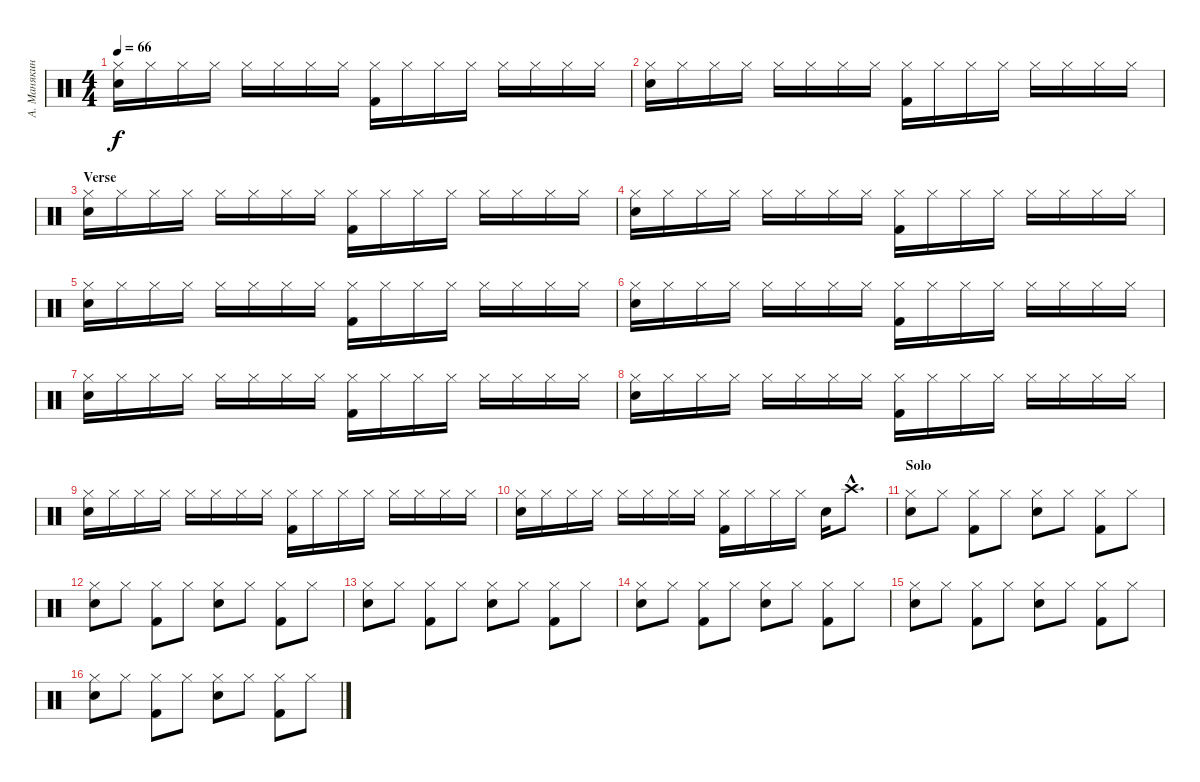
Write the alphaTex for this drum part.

\track ("А. Манякин" "А. Манякин") {instrument percussion}
\staff {score}
\articulation defaults
\ts (4 4)
\tempo 66
\clef neutral
\ks c
("Hi-Hat (closed)" "Snare (hit) 2").16{dy f} "Hi-Hat (closed)".16 "Hi-Hat (closed)".16 "Hi-Hat (closed)".16 "Hi-Hat (closed)".16 "Hi-Hat (closed)".16 "Hi-Hat (closed)".16 "Hi-Hat (closed)".16 ("Hi-Hat (closed)" "Kick (hit) 2").16 "Hi-Hat (closed)".16 "Hi-Hat (closed)".16 "Hi-Hat (closed)".16 "Hi-Hat (closed)".16 "Hi-Hat (closed)".16 "Hi-Hat (closed)".16 "Hi-Hat (closed)".16 |
("Hi-Hat (closed)" "Snare (hit) 2").16 "Hi-Hat (closed)".16 "Hi-Hat (closed)".16 "Hi-Hat (closed)".16 "Hi-Hat (closed)".16 "Hi-Hat (closed)".16 "Hi-Hat (closed)".16 "Hi-Hat (closed)".16 ("Hi-Hat (closed)" "Kick (hit) 2").16 "Hi-Hat (closed)".16 "Hi-Hat (closed)".16 "Hi-Hat (closed)".16 "Hi-Hat (closed)".16 "Hi-Hat (closed)".16 "Hi-Hat (closed)".16 "Hi-Hat (closed)".16 |
\section ("" "Verse")
("Hi-Hat (closed)" "Snare (hit) 2").16 "Hi-Hat (closed)".16 "Hi-Hat (closed)".16 "Hi-Hat (closed)".16 "Hi-Hat (closed)".16 "Hi-Hat (closed)".16 "Hi-Hat (closed)".16 "Hi-Hat (closed)".16 ("Hi-Hat (closed)" "Kick (hit) 2").16 "Hi-Hat (closed)".16 "Hi-Hat (closed)".16 "Hi-Hat (closed)".16 "Hi-Hat (closed)".16 "Hi-Hat (closed)".16 "Hi-Hat (closed)".16 "Hi-Hat (closed)".16 |
("Hi-Hat (closed)" "Snare (hit) 2").16 "Hi-Hat (closed)".16 "Hi-Hat (closed)".16 "Hi-Hat (closed)".16 "Hi-Hat (closed)".16 "Hi-Hat (closed)".16 "Hi-Hat (closed)".16 "Hi-Hat (closed)".16 ("Hi-Hat (closed)" "Kick (hit) 2").16 "Hi-Hat (closed)".16 "Hi-Hat (closed)".16 "Hi-Hat (closed)".16 "Hi-Hat (closed)".16 "Hi-Hat (closed)".16 "Hi-Hat (closed)".16 "Hi-Hat (closed)".16 |
("Hi-Hat (closed)" "Snare (hit) 2").16 "Hi-Hat (closed)".16 "Hi-Hat (closed)".16 "Hi-Hat (closed)".16 "Hi-Hat (closed)".16 "Hi-Hat (closed)".16 "Hi-Hat (closed)".16 "Hi-Hat (closed)".16 ("Hi-Hat (closed)" "Kick (hit) 2").16 "Hi-Hat (closed)".16 "Hi-Hat (closed)".16 "Hi-Hat (closed)".16 "Hi-Hat (closed)".16 "Hi-Hat (closed)".16 "Hi-Hat (closed)".16 "Hi-Hat (closed)".16 |
("Hi-Hat (closed)" "Snare (hit) 2").16 "Hi-Hat (closed)".16 "Hi-Hat (closed)".16 "Hi-Hat (closed)".16 "Hi-Hat (closed)".16 "Hi-Hat (closed)".16 "Hi-Hat (closed)".16 "Hi-Hat (closed)".16 ("Hi-Hat (closed)" "Kick (hit) 2").16 "Hi-Hat (closed)".16 "Hi-Hat (closed)".16 "Hi-Hat (closed)".16 "Hi-Hat (closed)".16 "Hi-Hat (closed)".16 "Hi-Hat (closed)".16 "Hi-Hat (closed)".16 |
("Hi-Hat (closed)" "Snare (hit) 2").16 "Hi-Hat (closed)".16 "Hi-Hat (closed)".16 "Hi-Hat (closed)".16 "Hi-Hat (closed)".16 "Hi-Hat (closed)".16 "Hi-Hat (closed)".16 "Hi-Hat (closed)".16 ("Hi-Hat (closed)" "Kick (hit) 2").16 "Hi-Hat (closed)".16 "Hi-Hat (closed)".16 "Hi-Hat (closed)".16 "Hi-Hat (closed)".16 "Hi-Hat (closed)".16 "Hi-Hat (closed)".16 "Hi-Hat (closed)".16 |
("Hi-Hat (closed)" "Snare (hit) 2").16 "Hi-Hat (closed)".16 "Hi-Hat (closed)".16 "Hi-Hat (closed)".16 "Hi-Hat (closed)".16 "Hi-Hat (closed)".16 "Hi-Hat (closed)".16 "Hi-Hat (closed)".16 ("Hi-Hat (closed)" "Kick (hit) 2").16 "Hi-Hat (closed)".16 "Hi-Hat (closed)".16 "Hi-Hat (closed)".16 "Hi-Hat (closed)".16 "Hi-Hat (closed)".16 "Hi-Hat (closed)".16 "Hi-Hat (closed)".16 |
("Hi-Hat (closed)" "Snare (hit) 2").16 "Hi-Hat (closed)".16 "Hi-Hat (closed)".16 "Hi-Hat (closed)".16 "Hi-Hat (closed)".16 "Hi-Hat (closed)".16 "Hi-Hat (closed)".16 "Hi-Hat (closed)".16 ("Hi-Hat (closed)" "Kick (hit) 2").16 "Hi-Hat (closed)".16 "Hi-Hat (closed)".16 "Hi-Hat (closed)".16 "Hi-Hat (closed)".16 "Hi-Hat (closed)".16 "Hi-Hat (closed)".16 "Hi-Hat (closed)".16 |
("Hi-Hat (closed)" "Snare (hit) 2").16 "Hi-Hat (closed)".16 "Hi-Hat (closed)".16 "Hi-Hat (closed)".16 "Hi-Hat (closed)".16 "Hi-Hat (closed)".16 "Hi-Hat (closed)".16 "Hi-Hat (closed)".16 ("Hi-Hat (closed)" "Kick (hit) 2").16 "Hi-Hat (closed)".16 "Hi-Hat (closed)".16 "Hi-Hat (closed)".16 "Snare (hit) 2".16 "Crash high (hit)"{hac}.8{d} |
\section ("" "Solo")
("Hi-Hat (closed)" "Snare (hit) 2").8 "Hi-Hat (closed)".8 ("Hi-Hat (closed)" "Kick (hit) 2").8 "Hi-Hat (closed)".8 ("Hi-Hat (closed)" "Snare (hit) 2").8 "Hi-Hat (closed)".8 ("Hi-Hat (closed)" "Kick (hit) 2").8 "Hi-Hat (closed)".8 |
("Hi-Hat (closed)" "Snare (hit) 2").8 "Hi-Hat (closed)".8 ("Hi-Hat (closed)" "Kick (hit) 2").8 "Hi-Hat (closed)".8 ("Hi-Hat (closed)" "Snare (hit) 2").8 "Hi-Hat (closed)".8 ("Hi-Hat (closed)" "Kick (hit) 2").8 "Hi-Hat (closed)".8 |
("Hi-Hat (closed)" "Snare (hit) 2").8 "Hi-Hat (closed)".8 ("Hi-Hat (closed)" "Kick (hit) 2").8 "Hi-Hat (closed)".8 ("Hi-Hat (closed)" "Snare (hit) 2").8 "Hi-Hat (closed)".8 ("Hi-Hat (closed)" "Kick (hit) 2").8 "Hi-Hat (closed)".8 |
("Hi-Hat (closed)" "Snare (hit) 2").8 "Hi-Hat (closed)".8 ("Hi-Hat (closed)" "Kick (hit) 2").8 "Hi-Hat (closed)".8 ("Hi-Hat (closed)" "Snare (hit) 2").8 "Hi-Hat (closed)".8 ("Hi-Hat (closed)" "Kick (hit) 2").8 "Hi-Hat (closed)".8 |
("Hi-Hat (closed)" "Snare (hit) 2").8 "Hi-Hat (closed)".8 ("Hi-Hat (closed)" "Kick (hit) 2").8 "Hi-Hat (closed)".8 ("Hi-Hat (closed)" "Snare (hit) 2").8 "Hi-Hat (closed)".8 ("Hi-Hat (closed)" "Kick (hit) 2").8 "Hi-Hat (closed)".8 |
("Hi-Hat (closed)" "Snare (hit) 2").8 "Hi-Hat (closed)".8 ("Hi-Hat (closed)" "Kick (hit) 2").8 "Hi-Hat (closed)".8 ("Hi-Hat (closed)" "Snare (hit) 2").8 "Hi-Hat (closed)".8 ("Hi-Hat (closed)" "Kick (hit) 2").8 "Hi-Hat (closed)".8
